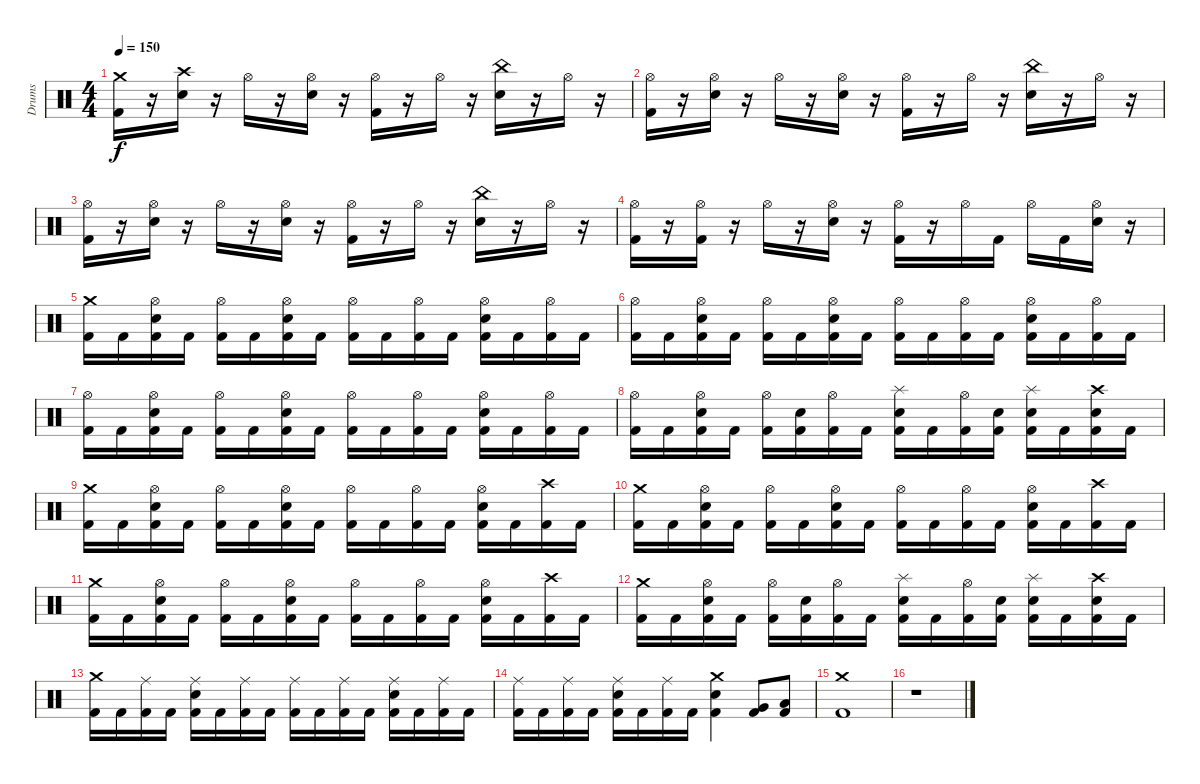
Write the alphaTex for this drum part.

\track ("Drums" "Drums") {instrument percussion}
\staff {score}
\articulation defaults
\ts (4 4)
\tempo 150
\clef neutral
\ks c
("Crash medium (hit)" "Kick (hit) 2").16{dy f} r.16 ("Crash high (hit)" "Electric Snare (hit)").16 r.16 "Hi-Hat (open)".16 r.16 ("Hi-Hat (open)" "Electric Snare (hit)").16 r.16 ("Hi-Hat (open)" "Kick (hit) 2").16 r.16 "Hi-Hat (open)".16 r.16 ("China (hit)" "Electric Snare (hit)").16 r.16 "Hi-Hat (open)".16 r.16 |
("Hi-Hat (open)" "Kick (hit) 2").16 r.16 ("Hi-Hat (open)" "Electric Snare (hit)").16 r.16 "Hi-Hat (open)".16 r.16 ("Hi-Hat (open)" "Electric Snare (hit)").16 r.16 ("Hi-Hat (open)" "Kick (hit) 2").16 r.16 "Hi-Hat (open)".16 r.16 ("China (hit)" "Electric Snare (hit)").16 r.16 "Hi-Hat (open)".16 r.16 |
("Hi-Hat (open)" "Kick (hit) 2").16 r.16 ("Hi-Hat (open)" "Electric Snare (hit)").16 r.16 "Hi-Hat (open)".16 r.16 ("Hi-Hat (open)" "Electric Snare (hit)").16 r.16 ("Hi-Hat (open)" "Kick (hit) 2").16 r.16 "Hi-Hat (open)".16 r.16 ("China (hit)" "Electric Snare (hit)").16 r.16 "Hi-Hat (open)".16 r.16 |
("Hi-Hat (open)" "Kick (hit) 2").16 r.16 ("Hi-Hat (open)" "Kick (hit) 2").16 r.16 "Hi-Hat (open)".16 r.16 ("Hi-Hat (open)" "Electric Snare (hit)").16 r.16 ("Hi-Hat (open)" "Kick (hit) 2").16 r.16 "Hi-Hat (open)".16 "Kick (hit) 2".16 "Hi-Hat (open)".16 "Kick (hit) 2".16 ("Hi-Hat (open)" "Electric Snare (hit)").16 r.16 |
("Crash medium (hit)" "Kick (hit) 2").16 "Kick (hit) 2".16 ("Hi-Hat (open)" "Electric Snare (hit)" "Kick (hit) 2").16 "Kick (hit) 2".16 ("Hi-Hat (open)" "Kick (hit) 2").16 "Kick (hit) 2".16 ("Hi-Hat (open)" "Electric Snare (hit)" "Kick (hit) 2").16 "Kick (hit) 2".16 ("Hi-Hat (open)" "Kick (hit) 2").16 "Kick (hit) 2".16 ("Hi-Hat (open)" "Kick (hit) 2").16 "Kick (hit) 2".16 ("Hi-Hat (open)" "Electric Snare (hit)" "Kick (hit) 2").16 "Kick (hit) 2".16 ("Hi-Hat (open)" "Kick (hit) 2").16 "Kick (hit) 2".16 |
("Hi-Hat (open)" "Kick (hit) 2").16 "Kick (hit) 2".16 ("Hi-Hat (open)" "Electric Snare (hit)" "Kick (hit) 2").16 "Kick (hit) 2".16 ("Hi-Hat (open)" "Kick (hit) 2").16 "Kick (hit) 2".16 ("Hi-Hat (open)" "Electric Snare (hit)" "Kick (hit) 2").16 "Kick (hit) 2".16 ("Hi-Hat (open)" "Kick (hit) 2").16 "Kick (hit) 2".16 ("Hi-Hat (open)" "Kick (hit) 2").16 "Kick (hit) 2".16 ("Hi-Hat (open)" "Electric Snare (hit)" "Kick (hit) 2").16 "Kick (hit) 2".16 ("Hi-Hat (open)" "Kick (hit) 2").16 "Kick (hit) 2".16 |
("Hi-Hat (open)" "Kick (hit) 2").16 "Kick (hit) 2".16 ("Hi-Hat (open)" "Electric Snare (hit)" "Kick (hit) 2").16 "Kick (hit) 2".16 ("Hi-Hat (open)" "Kick (hit) 2").16 "Kick (hit) 2".16 ("Hi-Hat (open)" "Electric Snare (hit)" "Kick (hit) 2").16 "Kick (hit) 2".16 ("Hi-Hat (open)" "Kick (hit) 2").16 "Kick (hit) 2".16 ("Hi-Hat (open)" "Kick (hit) 2").16 "Kick (hit) 2".16 ("Hi-Hat (open)" "Electric Snare (hit)" "Kick (hit) 2").16 "Kick (hit) 2".16 ("Hi-Hat (open)" "Kick (hit) 2").16 "Kick (hit) 2".16 |
("Hi-Hat (open)" "Kick (hit) 2").16 "Kick (hit) 2".16 ("Hi-Hat (open)" "Electric Snare (hit)" "Kick (hit) 2").16 "Kick (hit) 2".16 ("Hi-Hat (open)" "Kick (hit) 2").16 ("Electric Snare (hit)" "Kick (hit) 2").16 ("Hi-Hat (open)" "Kick (hit) 2").16 "Kick (hit) 2".16 ("Splash (hit)" "Electric Snare (hit)" "Kick (hit) 2").16 "Kick (hit) 2".16 ("Hi-Hat (open)" "Kick (hit) 2").16 ("Electric Snare (hit)" "Kick (hit) 2").16 ("Splash (hit)" "Electric Snare (hit)" "Kick (hit) 2").16 "Kick (hit) 2".16 ("Crash high (hit)" "Electric Snare (hit)" "Kick (hit) 2").16 "Kick (hit) 2".16 |
("Crash medium (hit)" "Kick (hit) 2").16 "Kick (hit) 2".16 ("Hi-Hat (open)" "Electric Snare (hit)" "Kick (hit) 2").16 "Kick (hit) 2".16 ("Hi-Hat (open)" "Kick (hit) 2").16 "Kick (hit) 2".16 ("Hi-Hat (open)" "Electric Snare (hit)" "Kick (hit) 2").16 "Kick (hit) 2".16 ("Hi-Hat (open)" "Kick (hit) 2").16 "Kick (hit) 2".16 ("Hi-Hat (open)" "Kick (hit) 2").16 "Kick (hit) 2".16 ("Hi-Hat (open)" "Electric Snare (hit)" "Kick (hit) 2").16 "Kick (hit) 2".16 ("Crash high (hit)" "Kick (hit) 2").16 "Kick (hit) 2".16 |
("Crash medium (hit)" "Kick (hit) 2").16 "Kick (hit) 2".16 ("Hi-Hat (open)" "Electric Snare (hit)" "Kick (hit) 2").16 "Kick (hit) 2".16 ("Hi-Hat (open)" "Kick (hit) 2").16 "Kick (hit) 2".16 ("Hi-Hat (open)" "Electric Snare (hit)" "Kick (hit) 2").16 "Kick (hit) 2".16 ("Hi-Hat (open)" "Kick (hit) 2").16 "Kick (hit) 2".16 ("Hi-Hat (open)" "Kick (hit) 2").16 "Kick (hit) 2".16 ("Hi-Hat (open)" "Electric Snare (hit)" "Kick (hit) 2").16 "Kick (hit) 2".16 ("Crash high (hit)" "Kick (hit) 2").16 "Kick (hit) 2".16 |
("Crash medium (hit)" "Kick (hit) 2").16 "Kick (hit) 2".16 ("Hi-Hat (open)" "Electric Snare (hit)" "Kick (hit) 2").16 "Kick (hit) 2".16 ("Hi-Hat (open)" "Kick (hit) 2").16 "Kick (hit) 2".16 ("Hi-Hat (open)" "Electric Snare (hit)" "Kick (hit) 2").16 "Kick (hit) 2".16 ("Hi-Hat (open)" "Kick (hit) 2").16 "Kick (hit) 2".16 ("Hi-Hat (open)" "Kick (hit) 2").16 "Kick (hit) 2".16 ("Hi-Hat (open)" "Electric Snare (hit)" "Kick (hit) 2").16 "Kick (hit) 2".16 ("Crash high (hit)" "Kick (hit) 2").16 "Kick (hit) 2".16 |
("Crash medium (hit)" "Kick (hit) 2").16 "Kick (hit) 2".16 ("Hi-Hat (open)" "Electric Snare (hit)" "Kick (hit) 2").16 "Kick (hit) 2".16 ("Hi-Hat (open)" "Kick (hit) 2").16 ("Electric Snare (hit)" "Kick (hit) 2").16 ("Hi-Hat (open)" "Kick (hit) 2").16 "Kick (hit) 2".16 ("Splash (hit)" "Electric Snare (hit)" "Kick (hit) 2").16 "Kick (hit) 2".16 ("Hi-Hat (open)" "Kick (hit) 2").16 ("Electric Snare (hit)" "Kick (hit) 2").16 ("Splash (hit)" "Electric Snare (hit)" "Kick (hit) 2").16 "Kick (hit) 2".16 ("Crash high (hit)" "Electric Snare (hit)" "Kick (hit) 2").16 "Kick (hit) 2".16 |
\section ("" "")
("Crash medium (hit)" "Kick (hit) 2").16 "Kick (hit) 2".16 ("Ride (middle)" "Kick (hit) 2").16 "Kick (hit) 2".16 ("Ride (middle)" "Electric Snare (hit)" "Kick (hit) 2").16 "Kick (hit) 2".16 ("Ride (middle)" "Kick (hit) 2").16 "Kick (hit) 2".16 ("Ride (middle)" "Kick (hit) 2").16 "Kick (hit) 2".16 ("Ride (middle)" "Kick (hit) 2").16 "Kick (hit) 2".16 ("Ride (middle)" "Electric Snare (hit)" "Kick (hit) 2").16 "Kick (hit) 2".16 ("Ride (middle)" "Kick (hit) 2").16 "Kick (hit) 2".16 |
("Ride (middle)" "Kick (hit) 2").16 "Kick (hit) 2".16 ("Ride (middle)" "Kick (hit) 2").16 "Kick (hit) 2".16 ("Ride (middle)" "Electric Snare (hit)" "Kick (hit) 2").16 "Kick (hit) 2".16 ("Ride (middle)" "Kick (hit) 2").16 "Kick (hit) 2".16 ("Crash medium (hit)" "Electric Snare (hit)" "Kick (hit) 2").4 ("Very Low Tom (hit)" "Kick (hit) 2").8 ("Low Floor Tom (hit)" "Kick (hit) 2").8 |
("Crash medium (hit)" "Kick (hit) 2").1 |
r.1
